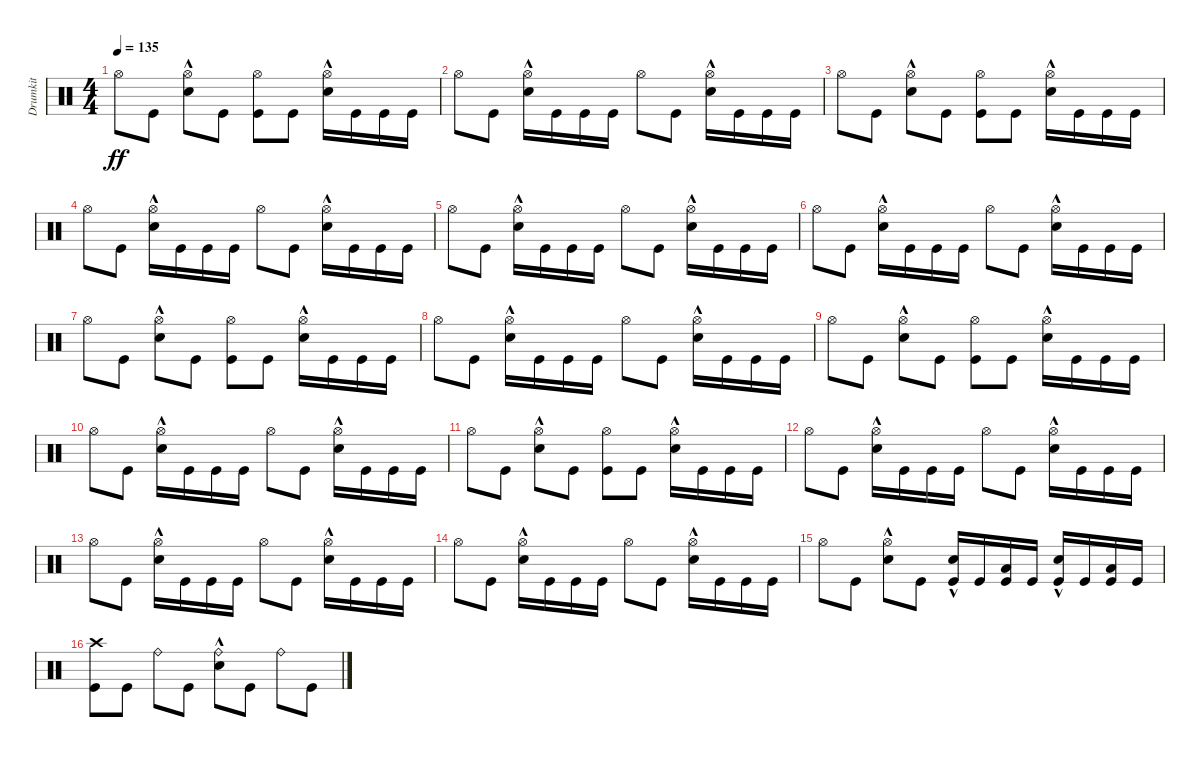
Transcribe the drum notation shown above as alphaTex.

\track ("Drumkit" "Drumkit") {instrument percussion}
\staff {score}
\articulation defaults
\ts (4 4)
\tempo 135
\clef neutral
\ks c "Hi-Hat (open)".8{dy ff} "Kick (hit)".8
("Hi-Hat (open)" "Snare (hit) 2"{hac}).8 "Kick (hit)".8 ("Hi-Hat (open)" "Kick (hit)").8 "Kick (hit)".8 ("Hi-Hat (open)" "Snare (hit) 2"{hac}).16 "Kick (hit)".16 "Kick (hit)".16 "Kick (hit)".16 |
"Hi-Hat (open)".8 "Kick (hit)".8 ("Hi-Hat (open)" "Snare (hit) 2"{hac}).16 "Kick (hit)".16 "Kick (hit)".16 "Kick (hit)".16 "Hi-Hat (open)".8 "Kick (hit)".8 ("Hi-Hat (open)" "Snare (hit) 2"{hac}).16 "Kick (hit)".16 "Kick (hit)".16 "Kick (hit)".16 |
"Hi-Hat (open)".8 "Kick (hit)".8 ("Hi-Hat (open)" "Snare (hit) 2"{hac}).8 "Kick (hit)".8 ("Hi-Hat (open)" "Kick (hit)").8 "Kick (hit)".8 ("Hi-Hat (open)" "Snare (hit) 2"{hac}).16 "Kick (hit)".16 "Kick (hit)".16 "Kick (hit)".16 |
"Hi-Hat (open)".8 "Kick (hit)".8 ("Hi-Hat (open)" "Snare (hit) 2"{hac}).16 "Kick (hit)".16 "Kick (hit)".16 "Kick (hit)".16 "Hi-Hat (open)".8 "Kick (hit)".8 ("Hi-Hat (open)" "Snare (hit) 2"{hac}).16 "Kick (hit)".16 "Kick (hit)".16 "Kick (hit)".16 |
"Hi-Hat (open)".8 "Kick (hit)".8 ("Hi-Hat (open)" "Snare (hit) 2"{hac}).16 "Kick (hit)".16 "Kick (hit)".16 "Kick (hit)".16 "Hi-Hat (open)".8 "Kick (hit)".8 ("Hi-Hat (open)" "Snare (hit) 2"{hac}).16 "Kick (hit)".16 "Kick (hit)".16 "Kick (hit)".16 |
"Hi-Hat (open)".8 "Kick (hit)".8 ("Hi-Hat (open)" "Snare (hit) 2"{hac}).16 "Kick (hit)".16 "Kick (hit)".16 "Kick (hit)".16 "Hi-Hat (open)".8 "Kick (hit)".8 ("Hi-Hat (open)" "Snare (hit) 2"{hac}).16 "Kick (hit)".16 "Kick (hit)".16 "Kick (hit)".16 |
"Hi-Hat (open)".8 "Kick (hit)".8 ("Hi-Hat (open)" "Snare (hit) 2"{hac}).8 "Kick (hit)".8 ("Hi-Hat (open)" "Kick (hit)").8 "Kick (hit)".8 ("Hi-Hat (open)" "Snare (hit) 2"{hac}).16 "Kick (hit)".16 "Kick (hit)".16 "Kick (hit)".16 |
"Hi-Hat (open)".8 "Kick (hit)".8 ("Hi-Hat (open)" "Snare (hit) 2"{hac}).16 "Kick (hit)".16 "Kick (hit)".16 "Kick (hit)".16 "Hi-Hat (open)".8 "Kick (hit)".8 ("Hi-Hat (open)" "Snare (hit) 2"{hac}).16 "Kick (hit)".16 "Kick (hit)".16 "Kick (hit)".16 |
"Hi-Hat (open)".8 "Kick (hit)".8 ("Hi-Hat (open)" "Snare (hit) 2"{hac}).8 "Kick (hit)".8 ("Hi-Hat (open)" "Kick (hit)").8 "Kick (hit)".8 ("Hi-Hat (open)" "Snare (hit) 2"{hac}).16 "Kick (hit)".16 "Kick (hit)".16 "Kick (hit)".16 |
"Hi-Hat (open)".8 "Kick (hit)".8 ("Hi-Hat (open)" "Snare (hit) 2"{hac}).16 "Kick (hit)".16 "Kick (hit)".16 "Kick (hit)".16 "Hi-Hat (open)".8 "Kick (hit)".8 ("Hi-Hat (open)" "Snare (hit) 2"{hac}).16 "Kick (hit)".16 "Kick (hit)".16 "Kick (hit)".16 |
"Hi-Hat (open)".8 "Kick (hit)".8 ("Hi-Hat (open)" "Snare (hit) 2"{hac}).8 "Kick (hit)".8 ("Hi-Hat (open)" "Kick (hit)").8 "Kick (hit)".8 ("Hi-Hat (open)" "Snare (hit) 2"{hac}).16 "Kick (hit)".16 "Kick (hit)".16 "Kick (hit)".16 |
"Hi-Hat (open)".8 "Kick (hit)".8 ("Hi-Hat (open)" "Snare (hit) 2"{hac}).16 "Kick (hit)".16 "Kick (hit)".16 "Kick (hit)".16 "Hi-Hat (open)".8 "Kick (hit)".8 ("Hi-Hat (open)" "Snare (hit) 2"{hac}).16 "Kick (hit)".16 "Kick (hit)".16 "Kick (hit)".16 |
"Hi-Hat (open)".8 "Kick (hit)".8 ("Hi-Hat (open)" "Snare (hit) 2"{hac}).16 "Kick (hit)".16 "Kick (hit)".16 "Kick (hit)".16 "Hi-Hat (open)".8 "Kick (hit)".8 ("Hi-Hat (open)" "Snare (hit) 2"{hac}).16 "Kick (hit)".16 "Kick (hit)".16 "Kick (hit)".16 |
"Hi-Hat (open)".8 "Kick (hit)".8 ("Hi-Hat (open)" "Snare (hit) 2"{hac}).16 "Kick (hit)".16 "Kick (hit)".16 "Kick (hit)".16 "Hi-Hat (open)".8 "Kick (hit)".8 ("Hi-Hat (open)" "Snare (hit) 2"{hac}).16 "Kick (hit)".16 "Kick (hit)".16 "Kick (hit)".16 |
"Hi-Hat (open)".8 "Kick (hit)".8 ("Hi-Hat (open)" "Snare (hit) 2"{hac}).8 "Kick (hit)".8 ("Kick (hit)" "Snare (hit) 2"{hac}).16 "Kick (hit)".16 ("Kick (hit)" "Low Tom (hit)").16 "Kick (hit)".16 ("Kick (hit)" "Snare (hit) 2"{hac}).16 "Kick (hit)".16 ("Kick (hit)" "Low Tom (hit)").16 "Kick (hit)".16 |
("Kick (hit)" "Crash high (hit)").8 "Kick (hit)".8 "Ride (bell)".8 "Kick (hit)".8 ("Ride (bell)" "Snare (hit) 2"{hac}).8 "Kick (hit)".8 "Ride (bell)".8 "Kick (hit)".8
